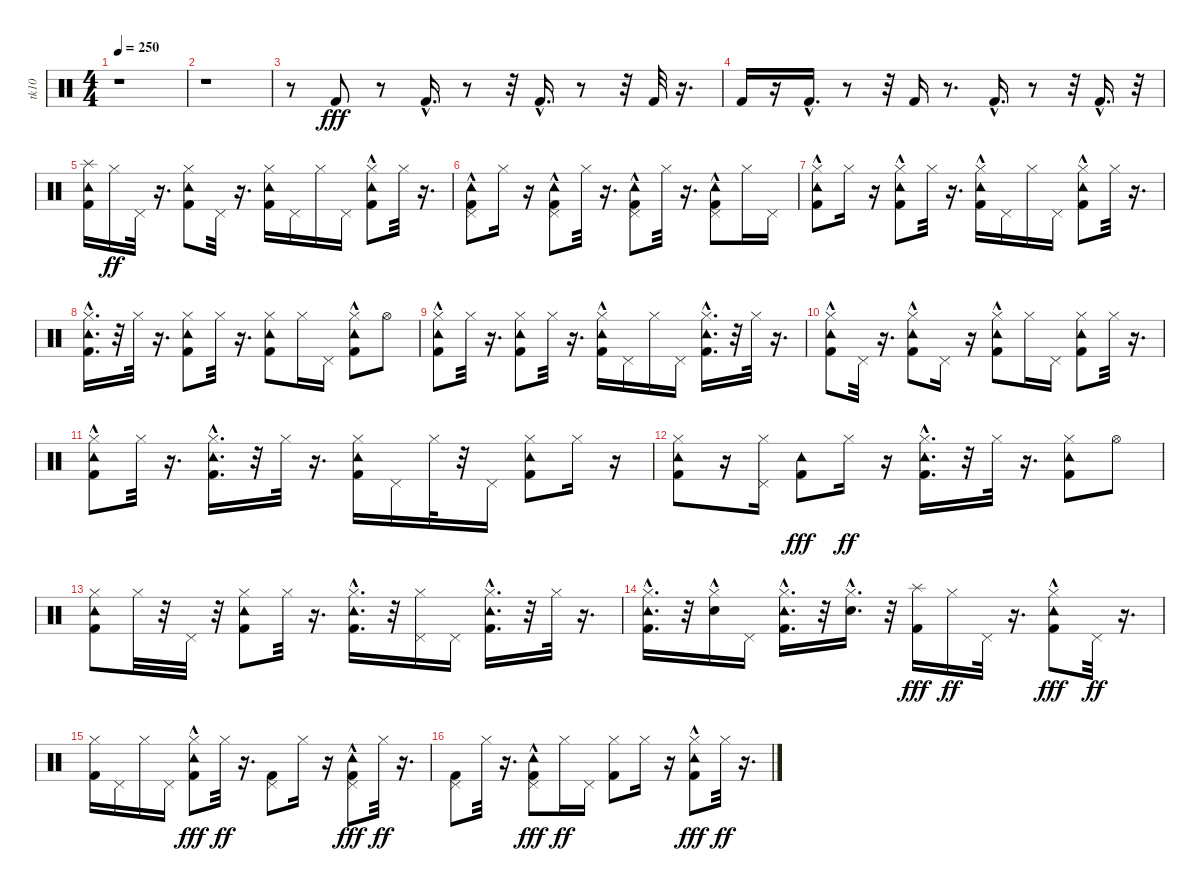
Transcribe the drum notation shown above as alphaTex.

\track ("tk10" "tk10") {instrument percussion}
\staff {score}
\articulation defaults
\ts (4 4)
\tempo 250
\clef neutral
\ks c
r.1{dy fff} |
r.1 |
r.8 "Kick (hit) 2".8{balance 8} r.8 "Kick (hit) 2"{hac}.16{d} r.8 r.32 "Kick (hit) 2"{hac}.16{d} r.8 r.32 "Kick (hit) 2".32 r.16{d} |
"Kick (hit) 2".16 r.16 "Kick (hit) 2"{hac}.16{d} r.8 r.32 "Kick (hit) 2".16 r.8{d} "Kick (hit) 2"{hac}.16{d} r.8 r.32 "Kick (hit) 2"{hac}.16{d} r.32 |
("Kick (hit) 2" "Tambourine (hit)" "Splash (hit)").16 "Hi-Hat (closed)".16{dy ff} "Pedal Hi-Hat (hit)".32 r.16{d} ("Kick (hit) 2" "Tambourine (hit)" "Hi-Hat (closed)").8 "Pedal Hi-Hat (hit)".32 r.16{d} ("Kick (hit) 2" "Tambourine (hit)" "Hi-Hat (closed)").16 "Pedal Hi-Hat (hit)".16 "Hi-Hat (closed)".16 "Pedal Hi-Hat (hit)".16 ("Kick (hit) 2" "Tambourine (hit)"{hac} "Hi-Hat (closed)").8 "Hi-Hat (closed)".32 r.16{d} |
("Kick (hit) 2" "Tambourine (hit)"{hac} "Pedal Hi-Hat (hit)").8 "Hi-Hat (closed)".16 r.16 ("Kick (hit) 2" "Tambourine (hit)"{hac} "Pedal Hi-Hat (hit)").8 "Hi-Hat (closed)".32 r.16{d} ("Kick (hit) 2" "Tambourine (hit)"{hac} "Pedal Hi-Hat (hit)").8 "Hi-Hat (closed)".32 r.16{d} ("Kick (hit) 2" "Tambourine (hit)"{hac} "Pedal Hi-Hat (hit)").8 "Hi-Hat (closed)".16 "Pedal Hi-Hat (hit)".16 |
("Kick (hit) 2" "Tambourine (hit)"{hac} "Hi-Hat (closed)").8 "Hi-Hat (closed)".16 r.16 ("Kick (hit) 2" "Tambourine (hit)"{hac} "Hi-Hat (closed)").8 "Hi-Hat (closed)".32 r.16{d} ("Kick (hit) 2" "Tambourine (hit)"{hac} "Hi-Hat (closed)").16 "Pedal Hi-Hat (hit)".16 "Hi-Hat (closed)".16 "Pedal Hi-Hat (hit)".16 ("Kick (hit) 2" "Tambourine (hit)"{hac} "Hi-Hat (closed)").8 "Hi-Hat (closed)".32 r.16{d} |
("Kick (hit) 2"{hac} "Tambourine (hit)"{hac} "Hi-Hat (closed)").16{d} r.32 "Hi-Hat (closed)".32 r.16{d} ("Kick (hit) 2" "Tambourine (hit)" "Hi-Hat (closed)").8 "Hi-Hat (closed)".32 r.16{d} ("Kick (hit) 2" "Tambourine (hit)" "Hi-Hat (closed)").8 "Hi-Hat (closed)".16 "Pedal Hi-Hat (hit)".16 ("Kick (hit) 2" "Tambourine (hit)"{hac} "Hi-Hat (closed)").8 "Hi-Hat (open)".8 |
("Kick (hit) 2" "Tambourine (hit)"{hac} "Hi-Hat (closed)").8 "Hi-Hat (closed)".32 r.16{d} ("Kick (hit) 2" "Tambourine (hit)" "Hi-Hat (closed)").8 "Hi-Hat (closed)".32 r.16{d} ("Kick (hit) 2" "Tambourine (hit)"{hac} "Hi-Hat (closed)").16 "Pedal Hi-Hat (hit)".16 "Hi-Hat (closed)".16 "Pedal Hi-Hat (hit)".16 ("Kick (hit) 2"{hac} "Tambourine (hit)"{hac} "Hi-Hat (closed)").16{d} r.32 "Hi-Hat (closed)".32 r.16{d} |
("Kick (hit) 2" "Tambourine (hit)"{hac} "Hi-Hat (closed)").8 "Pedal Hi-Hat (hit)".32 r.16{d} ("Kick (hit) 2" "Tambourine (hit)"{hac} "Hi-Hat (closed)").8 "Pedal Hi-Hat (hit)".16 r.16 ("Kick (hit) 2" "Tambourine (hit)"{hac} "Hi-Hat (closed)").8 "Hi-Hat (closed)".16 "Pedal Hi-Hat (hit)".16 ("Kick (hit) 2" "Tambourine (hit)" "Hi-Hat (closed)").8 "Hi-Hat (closed)".32 r.16{d} |
("Kick (hit) 2" "Tambourine (hit)"{hac} "Hi-Hat (closed)").8 "Hi-Hat (closed)".32 r.16{d} ("Kick (hit) 2"{hac} "Tambourine (hit)" "Hi-Hat (closed)").16{d} r.32 "Hi-Hat (closed)".32 r.16{d} ("Kick (hit) 2" "Tambourine (hit)" "Hi-Hat (closed)").16 "Pedal Hi-Hat (hit)".16 "Hi-Hat (closed)".32 r.32 "Pedal Hi-Hat (hit)".16 ("Kick (hit) 2" "Tambourine (hit)" "Hi-Hat (closed)").8 "Hi-Hat (closed)".16 r.16 |
("Kick (hit) 2" "Tambourine (hit)" "Hi-Hat (closed)").8 r.16 ("Hi-Hat (closed)" "Pedal Hi-Hat (hit)").16 ("Kick (hit) 2" "Tambourine (hit)").8{dy fff} "Hi-Hat (closed)".16{dy ff} r.16 ("Kick (hit) 2"{hac} "Tambourine (hit)" "Hi-Hat (closed)").16{d} r.32 "Hi-Hat (closed)".32 r.16{d} ("Kick (hit) 2" "Tambourine (hit)" "Hi-Hat (closed)").8 "Hi-Hat (open)".8 |
("Kick (hit) 2" "Tambourine (hit)" "Hi-Hat (closed)").8 "Hi-Hat (closed)".32 r.32 "Pedal Hi-Hat (hit)".32 r.32 ("Kick (hit) 2" "Tambourine (hit)" "Hi-Hat (closed)").8 "Hi-Hat (closed)".32 r.16{d} ("Kick (hit) 2"{hac} "Tambourine (hit)" "Hi-Hat (closed)").16{d} r.32 ("Hi-Hat (closed)" "Pedal Hi-Hat (hit)").16 "Pedal Hi-Hat (hit)".16 ("Kick (hit) 2"{hac} "Tambourine (hit)" "Hi-Hat (closed)").16{d} r.32 "Hi-Hat (closed)".32 r.16{d} |
("Kick (hit) 2"{hac} "Tambourine (hit)" "Hi-Hat (closed)").16{d} r.32 ("Electric Snare (hit)"{hac} "Hi-Hat (closed)").16 "Pedal Hi-Hat (hit)".16 ("Kick (hit) 2"{hac} "Tambourine (hit)" "Hi-Hat (closed)").16{d} r.32 ("Electric Snare (hit)"{hac} "Hi-Hat (closed)").16{d} r.32 ("Kick (hit) 2" "Splash (hit)").16{dy fff} "Hi-Hat (closed)".16{dy ff} "Pedal Hi-Hat (hit)".32 r.16{d} ("Kick (hit) 2" "Hi-Hat (closed)" "Tambourine (hit)"{hac}).8{dy fff} "Pedal Hi-Hat (hit)".32{dy ff} r.16{d} |
("Kick (hit) 2" "Hi-Hat (closed)").16 "Pedal Hi-Hat (hit)".16 "Hi-Hat (closed)".16 "Pedal Hi-Hat (hit)".16 ("Kick (hit) 2" "Hi-Hat (closed)" "Tambourine (hit)"{hac}).8{dy fff} "Hi-Hat (closed)".32{dy ff} r.16{d} ("Kick (hit) 2" "Pedal Hi-Hat (hit)").8 "Hi-Hat (closed)".16 r.16 ("Kick (hit) 2" "Pedal Hi-Hat (hit)" "Tambourine (hit)"{hac}).8{dy fff} "Hi-Hat (closed)".32{dy ff} r.16{d} |
("Kick (hit) 2" "Pedal Hi-Hat (hit)").8 "Hi-Hat (closed)".32 r.16{d} ("Kick (hit) 2" "Pedal Hi-Hat (hit)" "Tambourine (hit)"{hac}).8{dy fff} "Hi-Hat (closed)".16{dy ff} "Pedal Hi-Hat (hit)".16 ("Kick (hit) 2" "Hi-Hat (closed)").8 "Hi-Hat (closed)".16 r.16 ("Kick (hit) 2" "Hi-Hat (closed)" "Tambourine (hit)"{hac}).8{dy fff} "Hi-Hat (closed)".32{dy ff} r.16{d}
